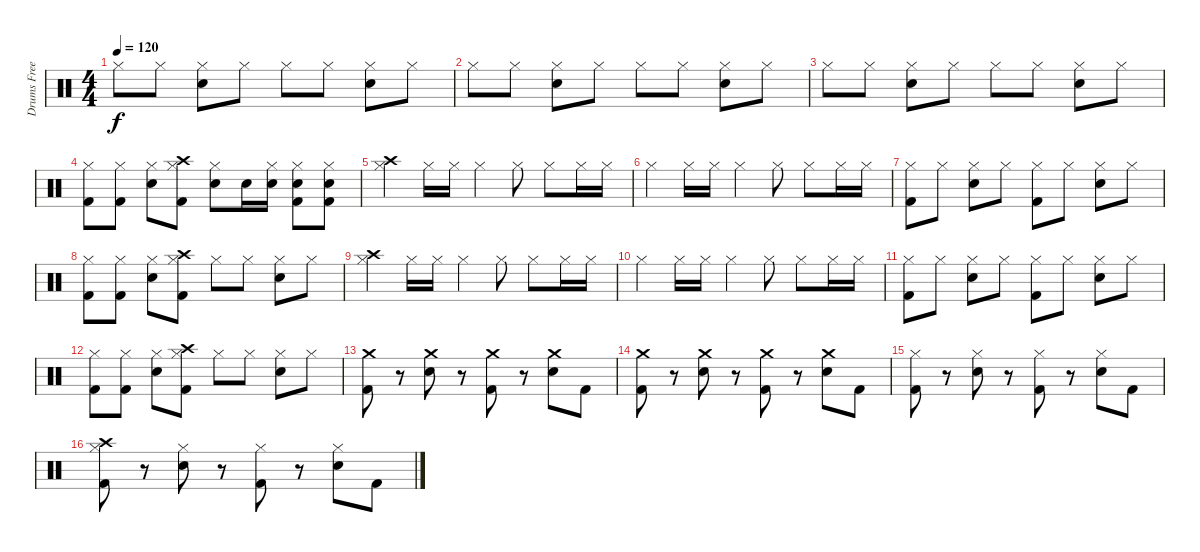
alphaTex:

\track ("Drums Freese" "Drums Free") {instrument percussion}
\staff {score}
\articulation defaults
\ts (4 4)
\tempo 120
\clef neutral
\ks c "Hi-Hat (closed)".8{dy f} "Hi-Hat (closed)".8
("Hi-Hat (closed)" "Snare (hit) 2").8 "Hi-Hat (closed)".8 "Hi-Hat (closed)".8 "Hi-Hat (closed)".8 ("Hi-Hat (closed)" "Snare (hit) 2").8 "Hi-Hat (closed)".8 |
"Hi-Hat (closed)".8 "Hi-Hat (closed)".8 ("Hi-Hat (closed)" "Snare (hit) 2").8 "Hi-Hat (closed)".8 "Hi-Hat (closed)".8 "Hi-Hat (closed)".8 ("Hi-Hat (closed)" "Snare (hit) 2").8 "Hi-Hat (closed)".8 |
"Hi-Hat (closed)".8 "Hi-Hat (closed)".8 ("Hi-Hat (closed)" "Snare (hit) 2").8 "Hi-Hat (closed)".8 "Hi-Hat (closed)".8 "Hi-Hat (closed)".8 ("Hi-Hat (closed)" "Snare (hit) 2").8 "Hi-Hat (closed)".8 |
("Hi-Hat (closed)" "Kick (hit) 2").8 ("Hi-Hat (closed)" "Kick (hit) 2").8 ("Hi-Hat (closed)" "Snare (hit) 2").8 ("Hi-Hat (closed)" "Crash high (hit)" "Kick (hit) 2").8 ("Hi-Hat (closed)" "Snare (hit) 2").8 "Snare (hit) 2".16 ("Hi-Hat (closed)" "Snare (hit) 2").16 ("Hi-Hat (closed)" "Snare (hit) 2" "Kick (hit) 2").8 ("Hi-Hat (closed)" "Snare (hit) 2" "Kick (hit) 2").8 |
("Hi-Hat (closed)" "Crash high (hit)").4 "Hi-Hat (closed)".16 "Hi-Hat (closed)".16 "Hi-Hat (closed)".4 "Hi-Hat (closed)".8 "Hi-Hat (closed)".8 "Hi-Hat (closed)".16 "Hi-Hat (closed)".16 |
"Hi-Hat (closed)".4 "Hi-Hat (closed)".16 "Hi-Hat (closed)".16 "Hi-Hat (closed)".4 "Hi-Hat (closed)".8 "Hi-Hat (closed)".8 "Hi-Hat (closed)".16 "Hi-Hat (closed)".16 |
("Hi-Hat (closed)" "Kick (hit) 2").8 "Hi-Hat (closed)".8 ("Hi-Hat (closed)" "Snare (hit) 2").8 "Hi-Hat (closed)".8 ("Hi-Hat (closed)" "Kick (hit) 2").8 "Hi-Hat (closed)".8 ("Hi-Hat (closed)" "Snare (hit) 2").8 "Hi-Hat (closed)".8 |
("Hi-Hat (closed)" "Kick (hit) 2").8 ("Hi-Hat (closed)" "Kick (hit) 2").8 ("Hi-Hat (closed)" "Snare (hit) 2").8 ("Hi-Hat (closed)" "Crash high (hit)" "Kick (hit) 2").8 "Hi-Hat (closed)".8 "Hi-Hat (closed)".8 ("Hi-Hat (closed)" "Snare (hit) 2").8 "Hi-Hat (closed)".8 |
("Hi-Hat (closed)" "Crash high (hit)").4 "Hi-Hat (closed)".16 "Hi-Hat (closed)".16 "Hi-Hat (closed)".4 "Hi-Hat (closed)".8 "Hi-Hat (closed)".8 "Hi-Hat (closed)".16 "Hi-Hat (closed)".16 |
"Hi-Hat (closed)".4 "Hi-Hat (closed)".16 "Hi-Hat (closed)".16 "Hi-Hat (closed)".4 "Hi-Hat (closed)".8 "Hi-Hat (closed)".8 "Hi-Hat (closed)".16 "Hi-Hat (closed)".16 |
("Hi-Hat (closed)" "Kick (hit) 2").8 "Hi-Hat (closed)".8 ("Hi-Hat (closed)" "Snare (hit) 2").8 "Hi-Hat (closed)".8 ("Hi-Hat (closed)" "Kick (hit) 2").8 "Hi-Hat (closed)".8 ("Hi-Hat (closed)" "Snare (hit) 2").8 "Hi-Hat (closed)".8 |
("Hi-Hat (closed)" "Kick (hit) 2").8 ("Hi-Hat (closed)" "Kick (hit) 2").8 ("Hi-Hat (closed)" "Snare (hit) 2").8 ("Hi-Hat (closed)" "Crash high (hit)" "Kick (hit) 2").8 "Hi-Hat (closed)".8 "Hi-Hat (closed)".8 ("Hi-Hat (closed)" "Snare (hit) 2").8 "Hi-Hat (closed)".8 |
("Crash medium (hit)" "Kick (hit) 2").8 r.8 ("Crash medium (hit)" "Snare (hit) 2").8 r.8 ("Crash medium (hit)" "Kick (hit) 2").8 r.8 ("Crash medium (hit)" "Snare (hit) 2").8 "Kick (hit) 2".8 |
("Crash medium (hit)" "Kick (hit) 2").8 r.8 ("Crash medium (hit)" "Snare (hit) 2").8 r.8 ("Crash medium (hit)" "Kick (hit) 2").8 r.8 ("Crash medium (hit)" "Snare (hit) 2").8 "Kick (hit) 2".8 |
("Hi-Hat (closed)" "Kick (hit) 2").8 r.8 ("Hi-Hat (closed)" "Snare (hit) 2").8 r.8 ("Hi-Hat (closed)" "Kick (hit) 2").8 r.8 ("Hi-Hat (closed)" "Snare (hit) 2").8 "Kick (hit) 2".8 |
("Hi-Hat (closed)" "Crash high (hit)" "Kick (hit) 2").8 r.8 ("Hi-Hat (closed)" "Snare (hit) 2").8 r.8 ("Hi-Hat (closed)" "Kick (hit) 2").8 r.8 ("Hi-Hat (closed)" "Snare (hit) 2").8 "Kick (hit) 2".8
